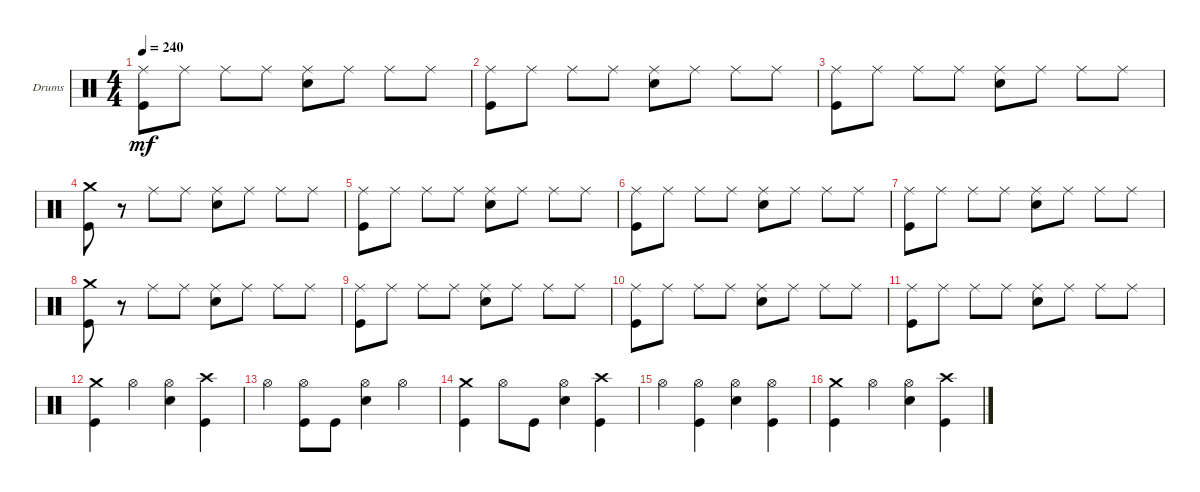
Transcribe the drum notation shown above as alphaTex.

\bracketExtendMode groupsimilarinstruments
\firstSystemTrackNameOrientation horizontal
\otherSystemsTrackNameOrientation horizontal
\track ("Drumkit" "Drums") {instrument percussion}
\staff {score}
\articulation defaults
\ts (4 4)
\tempo 240
\clef neutral
\ks c
("Ride (middle)" "Kick (hit)").8{dy mf} "Ride (middle)".8 "Ride (middle)".8 "Ride (middle)".8 ("Ride (middle)" "Snare (hit) 2").8 "Ride (middle)".8 "Ride (middle)".8 "Ride (middle)".8 |
("Ride (middle)" "Kick (hit)").8 "Ride (middle)".8 "Ride (middle)".8 "Ride (middle)".8 ("Ride (middle)" "Snare (hit) 2").8 "Ride (middle)".8 "Ride (middle)".8 "Ride (middle)".8 |
("Ride (middle)" "Kick (hit)").8 "Ride (middle)".8 "Ride (middle)".8 "Ride (middle)".8 ("Ride (middle)" "Snare (hit) 2").8 "Ride (middle)".8 "Ride (middle)".8 "Ride (middle)".8 |
("Crash medium (hit)" "Kick (hit)").8 r.8 "Ride (middle)".8 "Ride (middle)".8 ("Ride (middle)" "Snare (hit) 2").8 "Ride (middle)".8 "Ride (middle)".8 "Ride (middle)".8 |
("Ride (middle)" "Kick (hit)").8 "Ride (middle)".8 "Ride (middle)".8 "Ride (middle)".8 ("Ride (middle)" "Snare (hit) 2").8 "Ride (middle)".8 "Ride (middle)".8 "Ride (middle)".8 |
("Ride (middle)" "Kick (hit)").8 "Ride (middle)".8 "Ride (middle)".8 "Ride (middle)".8 ("Ride (middle)" "Snare (hit) 2").8 "Ride (middle)".8 "Ride (middle)".8 "Ride (middle)".8 |
("Ride (middle)" "Kick (hit)").8 "Ride (middle)".8 "Ride (middle)".8 "Ride (middle)".8 ("Ride (middle)" "Snare (hit) 2").8 "Ride (middle)".8 "Ride (middle)".8 "Ride (middle)".8 |
("Crash medium (hit)" "Kick (hit)").8 r.8 "Ride (middle)".8 "Ride (middle)".8 ("Ride (middle)" "Snare (hit) 2").8 "Ride (middle)".8 "Ride (middle)".8 "Ride (middle)".8 |
("Ride (middle)" "Kick (hit)").8 "Ride (middle)".8 "Ride (middle)".8 "Ride (middle)".8 ("Ride (middle)" "Snare (hit) 2").8 "Ride (middle)".8 "Ride (middle)".8 "Ride (middle)".8 |
("Ride (middle)" "Kick (hit)").8 "Ride (middle)".8 "Ride (middle)".8 "Ride (middle)".8 ("Ride (middle)" "Snare (hit) 2").8 "Ride (middle)".8 "Ride (middle)".8 "Ride (middle)".8 |
("Ride (middle)" "Kick (hit)").8 "Ride (middle)".8 "Ride (middle)".8 "Ride (middle)".8 ("Ride (middle)" "Snare (hit) 2").8 "Ride (middle)".8 "Ride (middle)".8 "Ride (middle)".8 |
("Crash medium (hit)" "Kick (hit)").4 "Hi-Hat (open)".4 ("Hi-Hat (open)" "Snare (hit) 2").4 ("Crash high (hit)" "Kick (hit)").4 |
"Hi-Hat (open)".4 ("Hi-Hat (open)" "Kick (hit)").8 "Kick (hit)".8 ("Hi-Hat (open)" "Snare (hit) 2").4 "Hi-Hat (open)".4 |
("Crash medium (hit)" "Kick (hit)").4 "Hi-Hat (open)".8 "Kick (hit)".8 ("Hi-Hat (open)" "Snare (hit) 2").4 ("Crash high (hit)" "Kick (hit)").4 |
"Hi-Hat (open)".4 ("Hi-Hat (open)" "Kick (hit)").4 ("Hi-Hat (open)" "Snare (hit) 2").4 ("Hi-Hat (open)" "Kick (hit)").4 |
("Crash medium (hit)" "Kick (hit)").4 "Hi-Hat (open)".4 ("Hi-Hat (open)" "Snare (hit) 2").4 ("Crash high (hit)" "Kick (hit)").4
